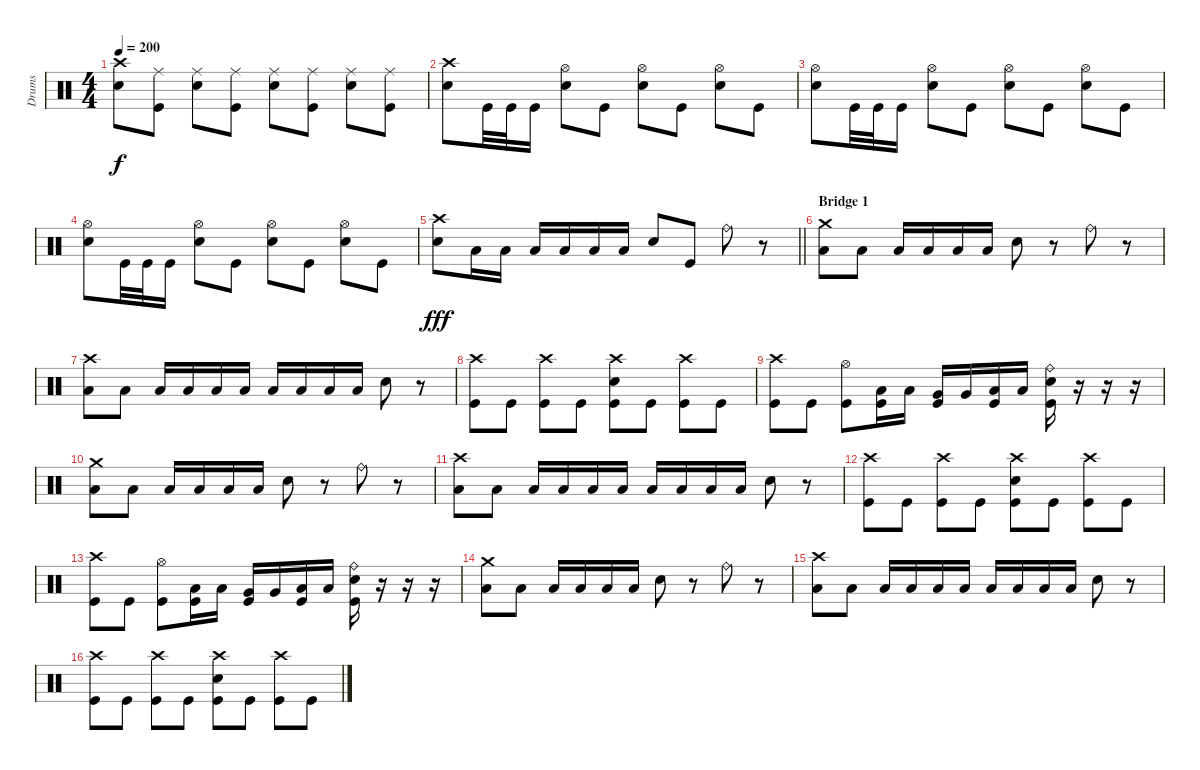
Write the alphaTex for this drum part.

\track ("Drums" "Drums") {instrument percussion}
\staff {score}
\articulation defaults
\ts (4 4)
\tempo 200
\clef neutral
\ks c
("Crash high (hit)" "Snare (hit) 2").8{dy f} ("Ride (middle)" "Kick (hit)").8 ("Ride (middle)" "Snare (hit) 2").8 ("Ride (middle)" "Kick (hit)").8 ("Ride (middle)" "Snare (hit) 2").8 ("Ride (middle)" "Kick (hit)").8 ("Ride (middle)" "Snare (hit) 2").8 ("Ride (middle)" "Kick (hit)").8 |
("Crash high (hit)" "Snare (hit) 2").8 "Kick (hit)".32 "Kick (hit)".32 "Kick (hit)".16 ("Hi-Hat (open)" "Snare (hit) 2").8 "Kick (hit)".8 ("Hi-Hat (open)" "Snare (hit) 2").8 "Kick (hit)".8 ("Hi-Hat (open)" "Snare (hit) 2").8 "Kick (hit)".8 |
("Hi-Hat (open)" "Snare (hit) 2").8 "Kick (hit)".32 "Kick (hit)".32 "Kick (hit)".16 ("Hi-Hat (open)" "Snare (hit) 2").8 "Kick (hit)".8 ("Hi-Hat (open)" "Snare (hit) 2").8 "Kick (hit)".8 ("Hi-Hat (open)" "Snare (hit) 2").8 "Kick (hit)".8 |
("Hi-Hat (open)" "Snare (hit) 2").8 "Kick (hit)".32 "Kick (hit)".32 "Kick (hit)".16 ("Hi-Hat (open)" "Snare (hit) 2").8 "Kick (hit)".8 ("Hi-Hat (open)" "Snare (hit) 2").8 "Kick (hit)".8 ("Hi-Hat (open)" "Snare (hit) 2").8 "Kick (hit)".8 |
\barLineRight lightlight
("Crash high (hit)" "Snare (hit) 2").8{dy fff} "Low Tom (hit)".16 "Low Tom (hit)".16 "Low Floor Tom (hit)".16 "Low Floor Tom (hit)".16 "Low Tom (hit)".16 "Low Tom (hit)".16 "Snare (hit) 2".8 "Kick (hit)".8 "Ride (bell)".8 r.8 |
\section ("" "Bridge 1")
("Crash medium (hit)" "Low Floor Tom (hit)").8 "Low Floor Tom (hit)".8 "Low Tom (hit)".16 "Low Tom (hit)".16 "Low Floor Tom (hit)".16 "Low Floor Tom (hit)".16 "Snare (hit) 2".8 r.8 "Ride (bell)".8 r.8 |
("Crash high (hit)" "Low Floor Tom (hit)").8 "Low Floor Tom (hit)".8 "Low Tom (hit)".16 "Low Tom (hit)".16 "Low Floor Tom (hit)".16 "Low Floor Tom (hit)".16 "Low Tom (hit)".16 "Low Tom (hit)".16 "Low Floor Tom (hit)".16 "Low Floor Tom (hit)".16 "Snare (hit) 2".8 r.8 |
("Crash high (hit)" "Kick (hit)").8 "Kick (hit)".8 ("Crash high (hit)" "Kick (hit)").8 "Kick (hit)".8 ("Crash high (hit)" "Snare (hit) 2" "Kick (hit)").8 "Kick (hit)".8 ("Crash high (hit)" "Kick (hit)").8 "Kick (hit)".8 |
("Crash high (hit)" "Kick (hit)").8 "Kick (hit)".8 ("Hi-Hat (open)" "Kick (hit)").8 ("Low Tom (hit)" "Kick (hit)").16 "Low Tom (hit)".16 ("Very Low Tom (hit)" "Kick (hit)").16 "Very Low Tom (hit)".16 ("Low Tom (hit)" "Kick (hit)").16 "Low Tom (hit)".16 ("Ride (bell)" "Snare (hit) 2" "Kick (hit)").16 r.16 r.16 r.16 |
("Crash medium (hit)" "Low Floor Tom (hit)").8 "Low Floor Tom (hit)".8 "Low Tom (hit)".16 "Low Tom (hit)".16 "Low Floor Tom (hit)".16 "Low Floor Tom (hit)".16 "Snare (hit) 2".8 r.8 "Ride (bell)".8 r.8 |
("Crash high (hit)" "Low Floor Tom (hit)").8 "Low Floor Tom (hit)".8 "Low Tom (hit)".16 "Low Tom (hit)".16 "Low Floor Tom (hit)".16 "Low Floor Tom (hit)".16 "Low Tom (hit)".16 "Low Tom (hit)".16 "Low Floor Tom (hit)".16 "Low Floor Tom (hit)".16 "Snare (hit) 2".8 r.8 |
("Crash high (hit)" "Kick (hit)").8 "Kick (hit)".8 ("Crash high (hit)" "Kick (hit)").8 "Kick (hit)".8 ("Crash high (hit)" "Snare (hit) 2" "Kick (hit)").8 "Kick (hit)".8 ("Crash high (hit)" "Kick (hit)").8 "Kick (hit)".8 |
("Crash high (hit)" "Kick (hit)").8 "Kick (hit)".8 ("Hi-Hat (open)" "Kick (hit)").8 ("Low Tom (hit)" "Kick (hit)").16 "Low Tom (hit)".16 ("Very Low Tom (hit)" "Kick (hit)").16 "Very Low Tom (hit)".16 ("Low Tom (hit)" "Kick (hit)").16 "Low Tom (hit)".16 ("Ride (bell)" "Snare (hit) 2" "Kick (hit)").16 r.16 r.16 r.16 |
("Crash medium (hit)" "Low Floor Tom (hit)").8 "Low Floor Tom (hit)".8 "Low Tom (hit)".16 "Low Tom (hit)".16 "Low Floor Tom (hit)".16 "Low Floor Tom (hit)".16 "Snare (hit) 2".8 r.8 "Ride (bell)".8 r.8 |
("Crash high (hit)" "Low Floor Tom (hit)").8 "Low Floor Tom (hit)".8 "Low Tom (hit)".16 "Low Tom (hit)".16 "Low Floor Tom (hit)".16 "Low Floor Tom (hit)".16 "Low Tom (hit)".16 "Low Tom (hit)".16 "Low Floor Tom (hit)".16 "Low Floor Tom (hit)".16 "Snare (hit) 2".8 r.8 |
("Crash high (hit)" "Kick (hit)").8 "Kick (hit)".8 ("Crash high (hit)" "Kick (hit)").8 "Kick (hit)".8 ("Crash high (hit)" "Snare (hit) 2" "Kick (hit)").8 "Kick (hit)".8 ("Crash high (hit)" "Kick (hit)").8 "Kick (hit)".8
